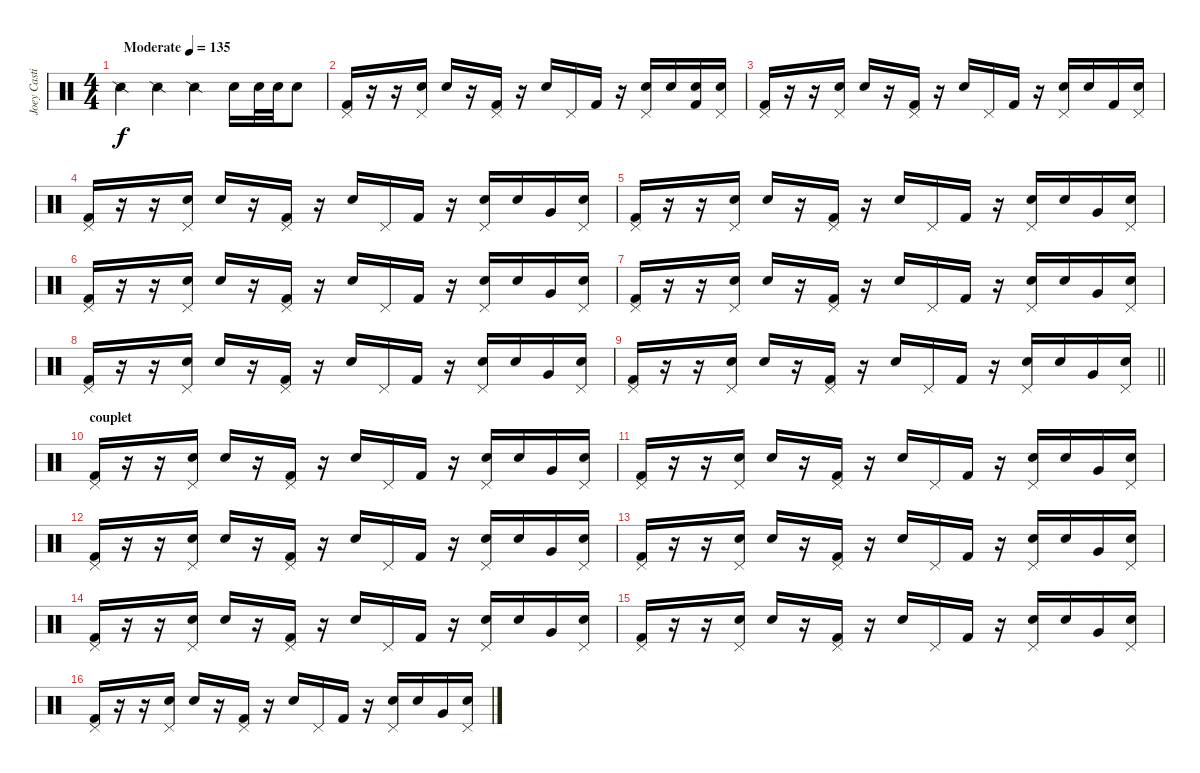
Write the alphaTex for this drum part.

\track ("Joey Castillo" "Joey Casti") {instrument percussion}
\staff {score}
\articulation defaults
\ts (4 4)
\tempo (135 "Moderate")
\clef neutral
\ks c "Snare (side stick) 2".4{dy f} "Snare (side stick) 2".4 "Snare (side stick) 2".4 "Electric Snare (hit)".16 "Electric Snare (hit)".32 "Electric Snare (hit)".32 "Electric Snare (hit)".8
|
("Kick (hit) 2" "Pedal Hi-Hat (hit)").16 r.16 r.16 ("Electric Snare (hit)" "Pedal Hi-Hat (hit)").16 "Electric Snare (hit)".16 r.16 ("Kick (hit) 2" "Pedal Hi-Hat (hit)").16 r.16 "Electric Snare (hit)".16 "Pedal Hi-Hat (hit)".16 "Kick (hit) 2".16 r.16 ("Electric Snare (hit)" "Pedal Hi-Hat (hit)").16 "Electric Snare (hit)".16 ("Kick (hit) 2" "Electric Snare (hit)").16 ("Electric Snare (hit)" "Pedal Hi-Hat (hit)").16 |
("Kick (hit) 2" "Pedal Hi-Hat (hit)").16 r.16 r.16 ("Electric Snare (hit)" "Pedal Hi-Hat (hit)").16 "Electric Snare (hit)".16 r.16 ("Kick (hit) 2" "Pedal Hi-Hat (hit)").16 r.16 "Electric Snare (hit)".16 "Pedal Hi-Hat (hit)".16 "Kick (hit) 2".16 r.16 ("Electric Snare (hit)" "Pedal Hi-Hat (hit)").16 "Electric Snare (hit)".16 "Kick (hit) 2".16 ("Electric Snare (hit)" "Pedal Hi-Hat (hit)").16 |
("Kick (hit) 2" "Pedal Hi-Hat (hit)").16 r.16 r.16 ("Electric Snare (hit)" "Pedal Hi-Hat (hit)").16 "Electric Snare (hit)".16 r.16 ("Kick (hit) 2" "Pedal Hi-Hat (hit)").16 r.16 "Electric Snare (hit)".16 "Pedal Hi-Hat (hit)".16 "Kick (hit) 2".16 r.16 ("Electric Snare (hit)" "Pedal Hi-Hat (hit)").16 "Electric Snare (hit)".16 "Very Low Tom (hit)".16 ("Electric Snare (hit)" "Pedal Hi-Hat (hit)").16 |
("Kick (hit) 2" "Pedal Hi-Hat (hit)").16 r.16 r.16 ("Electric Snare (hit)" "Pedal Hi-Hat (hit)").16 "Electric Snare (hit)".16 r.16 ("Kick (hit) 2" "Pedal Hi-Hat (hit)").16 r.16 "Electric Snare (hit)".16 "Pedal Hi-Hat (hit)".16 "Kick (hit) 2".16 r.16 ("Electric Snare (hit)" "Pedal Hi-Hat (hit)").16 "Electric Snare (hit)".16 "Very Low Tom (hit)".16 ("Electric Snare (hit)" "Pedal Hi-Hat (hit)").16 |
("Kick (hit) 2" "Pedal Hi-Hat (hit)").16 r.16 r.16 ("Electric Snare (hit)" "Pedal Hi-Hat (hit)").16 "Electric Snare (hit)".16 r.16 ("Kick (hit) 2" "Pedal Hi-Hat (hit)").16 r.16 "Electric Snare (hit)".16 "Pedal Hi-Hat (hit)".16 "Kick (hit) 2".16 r.16 ("Electric Snare (hit)" "Pedal Hi-Hat (hit)").16 "Electric Snare (hit)".16 "Very Low Tom (hit)".16 ("Electric Snare (hit)" "Pedal Hi-Hat (hit)").16 |
("Kick (hit) 2" "Pedal Hi-Hat (hit)").16 r.16 r.16 ("Electric Snare (hit)" "Pedal Hi-Hat (hit)").16 "Electric Snare (hit)".16 r.16 ("Kick (hit) 2" "Pedal Hi-Hat (hit)").16 r.16 "Electric Snare (hit)".16 "Pedal Hi-Hat (hit)".16 "Kick (hit) 2".16 r.16 ("Electric Snare (hit)" "Pedal Hi-Hat (hit)").16 "Electric Snare (hit)".16 "Very Low Tom (hit)".16 ("Electric Snare (hit)" "Pedal Hi-Hat (hit)").16 |
("Kick (hit) 2" "Pedal Hi-Hat (hit)").16 r.16 r.16 ("Electric Snare (hit)" "Pedal Hi-Hat (hit)").16 "Electric Snare (hit)".16 r.16 ("Kick (hit) 2" "Pedal Hi-Hat (hit)").16 r.16 "Electric Snare (hit)".16 "Pedal Hi-Hat (hit)".16 "Kick (hit) 2".16 r.16 ("Electric Snare (hit)" "Pedal Hi-Hat (hit)").16 "Electric Snare (hit)".16 "Very Low Tom (hit)".16 ("Electric Snare (hit)" "Pedal Hi-Hat (hit)").16 |
\barLineRight lightlight
("Kick (hit) 2" "Pedal Hi-Hat (hit)").16 r.16 r.16 ("Electric Snare (hit)" "Pedal Hi-Hat (hit)").16 "Electric Snare (hit)".16 r.16 ("Kick (hit) 2" "Pedal Hi-Hat (hit)").16 r.16 "Electric Snare (hit)".16 "Pedal Hi-Hat (hit)".16 "Kick (hit) 2".16 r.16 ("Electric Snare (hit)" "Pedal Hi-Hat (hit)").16 "Electric Snare (hit)".16 "Very Low Tom (hit)".16 ("Electric Snare (hit)" "Pedal Hi-Hat (hit)").16 |
\section ("" "couplet")
("Kick (hit) 2" "Pedal Hi-Hat (hit)").16 r.16 r.16 ("Electric Snare (hit)" "Pedal Hi-Hat (hit)").16 "Electric Snare (hit)".16 r.16 ("Kick (hit) 2" "Pedal Hi-Hat (hit)").16 r.16 "Electric Snare (hit)".16 "Pedal Hi-Hat (hit)".16 "Kick (hit) 2".16 r.16 ("Electric Snare (hit)" "Pedal Hi-Hat (hit)").16 "Electric Snare (hit)".16 "Very Low Tom (hit)".16 ("Electric Snare (hit)" "Pedal Hi-Hat (hit)").16 |
("Kick (hit) 2" "Pedal Hi-Hat (hit)").16 r.16 r.16 ("Electric Snare (hit)" "Pedal Hi-Hat (hit)").16 "Electric Snare (hit)".16 r.16 ("Kick (hit) 2" "Pedal Hi-Hat (hit)").16 r.16 "Electric Snare (hit)".16 "Pedal Hi-Hat (hit)".16 "Kick (hit) 2".16 r.16 ("Electric Snare (hit)" "Pedal Hi-Hat (hit)").16 "Electric Snare (hit)".16 "Very Low Tom (hit)".16 ("Electric Snare (hit)" "Pedal Hi-Hat (hit)").16 |
("Kick (hit) 2" "Pedal Hi-Hat (hit)").16 r.16 r.16 ("Electric Snare (hit)" "Pedal Hi-Hat (hit)").16 "Electric Snare (hit)".16 r.16 ("Kick (hit) 2" "Pedal Hi-Hat (hit)").16 r.16 "Electric Snare (hit)".16 "Pedal Hi-Hat (hit)".16 "Kick (hit) 2".16 r.16 ("Electric Snare (hit)" "Pedal Hi-Hat (hit)").16 "Electric Snare (hit)".16 "Very Low Tom (hit)".16 ("Electric Snare (hit)" "Pedal Hi-Hat (hit)").16 |
("Kick (hit) 2" "Pedal Hi-Hat (hit)").16 r.16 r.16 ("Electric Snare (hit)" "Pedal Hi-Hat (hit)").16 "Electric Snare (hit)".16 r.16 ("Kick (hit) 2" "Pedal Hi-Hat (hit)").16 r.16 "Electric Snare (hit)".16 "Pedal Hi-Hat (hit)".16 "Kick (hit) 2".16 r.16 ("Electric Snare (hit)" "Pedal Hi-Hat (hit)").16 "Electric Snare (hit)".16 "Very Low Tom (hit)".16 ("Electric Snare (hit)" "Pedal Hi-Hat (hit)").16 |
("Kick (hit) 2" "Pedal Hi-Hat (hit)").16 r.16 r.16 ("Electric Snare (hit)" "Pedal Hi-Hat (hit)").16 "Electric Snare (hit)".16 r.16 ("Kick (hit) 2" "Pedal Hi-Hat (hit)").16 r.16 "Electric Snare (hit)".16 "Pedal Hi-Hat (hit)".16 "Kick (hit) 2".16 r.16 ("Electric Snare (hit)" "Pedal Hi-Hat (hit)").16 "Electric Snare (hit)".16 "Very Low Tom (hit)".16 ("Electric Snare (hit)" "Pedal Hi-Hat (hit)").16 |
("Kick (hit) 2" "Pedal Hi-Hat (hit)").16 r.16 r.16 ("Electric Snare (hit)" "Pedal Hi-Hat (hit)").16 "Electric Snare (hit)".16 r.16 ("Kick (hit) 2" "Pedal Hi-Hat (hit)").16 r.16 "Electric Snare (hit)".16 "Pedal Hi-Hat (hit)".16 "Kick (hit) 2".16 r.16 ("Electric Snare (hit)" "Pedal Hi-Hat (hit)").16 "Electric Snare (hit)".16 "Very Low Tom (hit)".16 ("Electric Snare (hit)" "Pedal Hi-Hat (hit)").16 |
("Kick (hit) 2" "Pedal Hi-Hat (hit)").16 r.16 r.16 ("Electric Snare (hit)" "Pedal Hi-Hat (hit)").16 "Electric Snare (hit)".16 r.16 ("Kick (hit) 2" "Pedal Hi-Hat (hit)").16 r.16 "Electric Snare (hit)".16 "Pedal Hi-Hat (hit)".16 "Kick (hit) 2".16 r.16 ("Electric Snare (hit)" "Pedal Hi-Hat (hit)").16 "Electric Snare (hit)".16 "Very Low Tom (hit)".16 ("Electric Snare (hit)" "Pedal Hi-Hat (hit)").16
